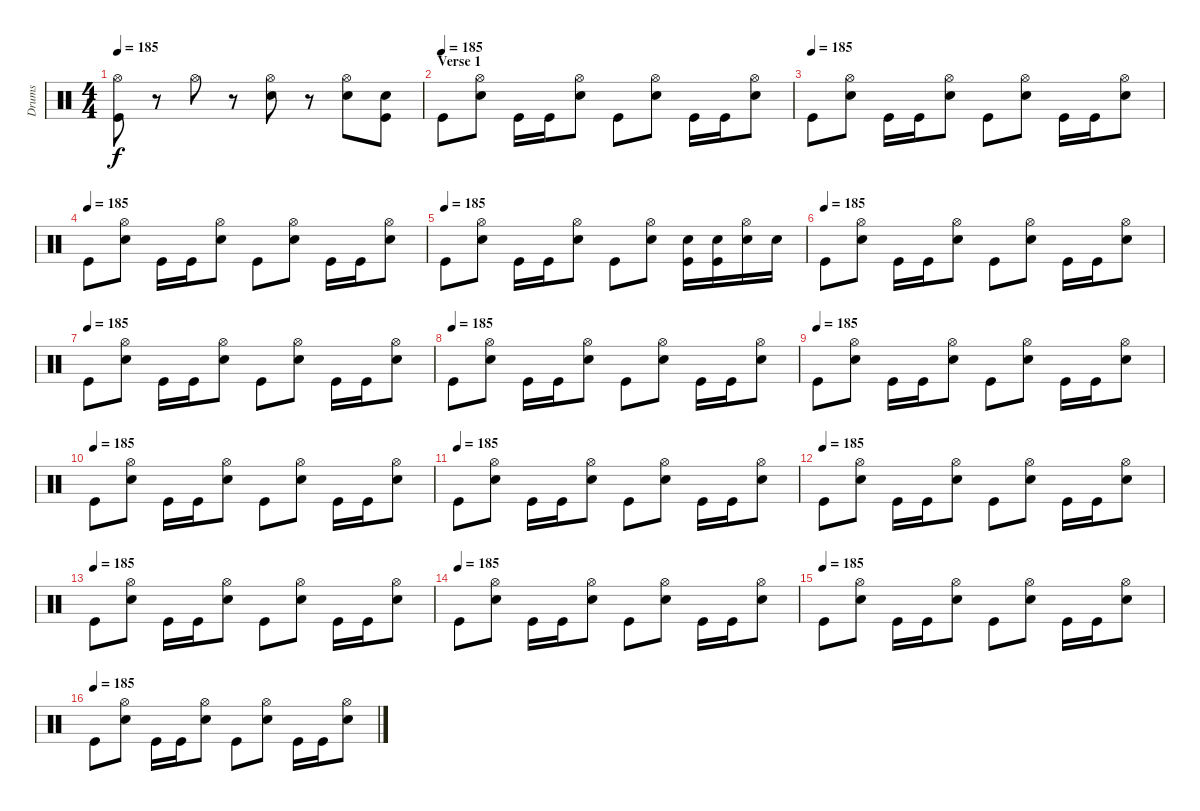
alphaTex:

\track ("Drums" "Drums") {instrument percussion}
\staff {score}
\articulation defaults
\ts (4 4)
\tempo 185
\clef neutral
\ks c
("Hi-Hat (open)" "Kick (hit)").8{dy f} r.8 "Hi-Hat (open)".8 r.8 ("Hi-Hat (open)" "Electric Snare (hit)").8 r.8 ("Hi-Hat (open)" "Electric Snare (hit)").8 ("Electric Snare (hit)" "Kick (hit)").8 |
\section ("" "Verse 1")
\tempo (185)
"Kick (hit)".8 ("Hi-Hat (open)" "Electric Snare (hit)").8 "Kick (hit)".16 "Kick (hit)".16 ("Hi-Hat (open)" "Electric Snare (hit)").8 "Kick (hit)".8 ("Hi-Hat (open)" "Electric Snare (hit)").8 "Kick (hit)".16 "Kick (hit)".16 ("Hi-Hat (open)" "Electric Snare (hit)").8 |
\tempo (185)
"Kick (hit)".8 ("Hi-Hat (open)" "Electric Snare (hit)").8 "Kick (hit)".16 "Kick (hit)".16 ("Hi-Hat (open)" "Electric Snare (hit)").8 "Kick (hit)".8 ("Hi-Hat (open)" "Electric Snare (hit)").8 "Kick (hit)".16 "Kick (hit)".16 ("Hi-Hat (open)" "Electric Snare (hit)").8 |
\tempo (185)
"Kick (hit)".8 ("Hi-Hat (open)" "Electric Snare (hit)").8 "Kick (hit)".16 "Kick (hit)".16 ("Hi-Hat (open)" "Electric Snare (hit)").8 "Kick (hit)".8 ("Hi-Hat (open)" "Electric Snare (hit)").8 "Kick (hit)".16 "Kick (hit)".16 ("Hi-Hat (open)" "Electric Snare (hit)").8 |
\tempo (185)
"Kick (hit)".8 ("Hi-Hat (open)" "Electric Snare (hit)").8 "Kick (hit)".16 "Kick (hit)".16 ("Hi-Hat (open)" "Electric Snare (hit)").8 "Kick (hit)".8 ("Hi-Hat (open)" "Electric Snare (hit)").8 ("Electric Snare (hit)" "Kick (hit)").16 ("Electric Snare (hit)" "Kick (hit)").16 ("Hi-Hat (open)" "Electric Snare (hit)").16 "Electric Snare (hit)".16 |
\tempo (185)
"Kick (hit)".8 ("Hi-Hat (open)" "Electric Snare (hit)").8 "Kick (hit)".16 "Kick (hit)".16 ("Hi-Hat (open)" "Electric Snare (hit)").8 "Kick (hit)".8 ("Hi-Hat (open)" "Electric Snare (hit)").8 "Kick (hit)".16 "Kick (hit)".16 ("Hi-Hat (open)" "Electric Snare (hit)").8 |
\tempo (185)
"Kick (hit)".8 ("Hi-Hat (open)" "Electric Snare (hit)").8 "Kick (hit)".16 "Kick (hit)".16 ("Hi-Hat (open)" "Electric Snare (hit)").8 "Kick (hit)".8 ("Hi-Hat (open)" "Electric Snare (hit)").8 "Kick (hit)".16 "Kick (hit)".16 ("Hi-Hat (open)" "Electric Snare (hit)").8 |
\tempo (185)
"Kick (hit)".8 ("Hi-Hat (open)" "Electric Snare (hit)").8 "Kick (hit)".16 "Kick (hit)".16 ("Hi-Hat (open)" "Electric Snare (hit)").8 "Kick (hit)".8 ("Hi-Hat (open)" "Electric Snare (hit)").8 "Kick (hit)".16 "Kick (hit)".16 ("Hi-Hat (open)" "Electric Snare (hit)").8 |
\tempo (185)
"Kick (hit)".8 ("Hi-Hat (open)" "Electric Snare (hit)").8 "Kick (hit)".16 "Kick (hit)".16 ("Hi-Hat (open)" "Electric Snare (hit)").8 "Kick (hit)".8 ("Hi-Hat (open)" "Electric Snare (hit)").8 "Kick (hit)".16 "Kick (hit)".16 ("Hi-Hat (open)" "Electric Snare (hit)").8 |
\tempo (185)
"Kick (hit)".8 ("Hi-Hat (open)" "Electric Snare (hit)").8 "Kick (hit)".16 "Kick (hit)".16 ("Hi-Hat (open)" "Electric Snare (hit)").8 "Kick (hit)".8 ("Hi-Hat (open)" "Electric Snare (hit)").8 "Kick (hit)".16 "Kick (hit)".16 ("Hi-Hat (open)" "Electric Snare (hit)").8 |
\tempo (185)
"Kick (hit)".8 ("Hi-Hat (open)" "Electric Snare (hit)").8 "Kick (hit)".16 "Kick (hit)".16 ("Hi-Hat (open)" "Electric Snare (hit)").8 "Kick (hit)".8 ("Hi-Hat (open)" "Electric Snare (hit)").8 "Kick (hit)".16 "Kick (hit)".16 ("Hi-Hat (open)" "Electric Snare (hit)").8 |
\tempo (185)
"Kick (hit)".8 ("Hi-Hat (open)" "Electric Snare (hit)").8 "Kick (hit)".16 "Kick (hit)".16 ("Hi-Hat (open)" "Electric Snare (hit)").8 "Kick (hit)".8 ("Hi-Hat (open)" "Electric Snare (hit)").8 "Kick (hit)".16 "Kick (hit)".16 ("Hi-Hat (open)" "Electric Snare (hit)").8 |
\tempo (185)
"Kick (hit)".8 ("Hi-Hat (open)" "Electric Snare (hit)").8 "Kick (hit)".16 "Kick (hit)".16 ("Hi-Hat (open)" "Electric Snare (hit)").8 "Kick (hit)".8 ("Hi-Hat (open)" "Electric Snare (hit)").8 "Kick (hit)".16 "Kick (hit)".16 ("Hi-Hat (open)" "Electric Snare (hit)").8 |
\tempo (185)
"Kick (hit)".8 ("Hi-Hat (open)" "Electric Snare (hit)").8 "Kick (hit)".16 "Kick (hit)".16 ("Hi-Hat (open)" "Electric Snare (hit)").8 "Kick (hit)".8 ("Hi-Hat (open)" "Electric Snare (hit)").8 "Kick (hit)".16 "Kick (hit)".16 ("Hi-Hat (open)" "Electric Snare (hit)").8 |
\tempo (185)
"Kick (hit)".8 ("Hi-Hat (open)" "Electric Snare (hit)").8 "Kick (hit)".16 "Kick (hit)".16 ("Hi-Hat (open)" "Electric Snare (hit)").8 "Kick (hit)".8 ("Hi-Hat (open)" "Electric Snare (hit)").8 "Kick (hit)".16 "Kick (hit)".16 ("Hi-Hat (open)" "Electric Snare (hit)").8 |
\tempo (185)
"Kick (hit)".8 ("Hi-Hat (open)" "Electric Snare (hit)").8 "Kick (hit)".16 "Kick (hit)".16 ("Hi-Hat (open)" "Electric Snare (hit)").8 "Kick (hit)".8 ("Hi-Hat (open)" "Electric Snare (hit)").8 "Kick (hit)".16 "Kick (hit)".16 ("Hi-Hat (open)" "Electric Snare (hit)").8
